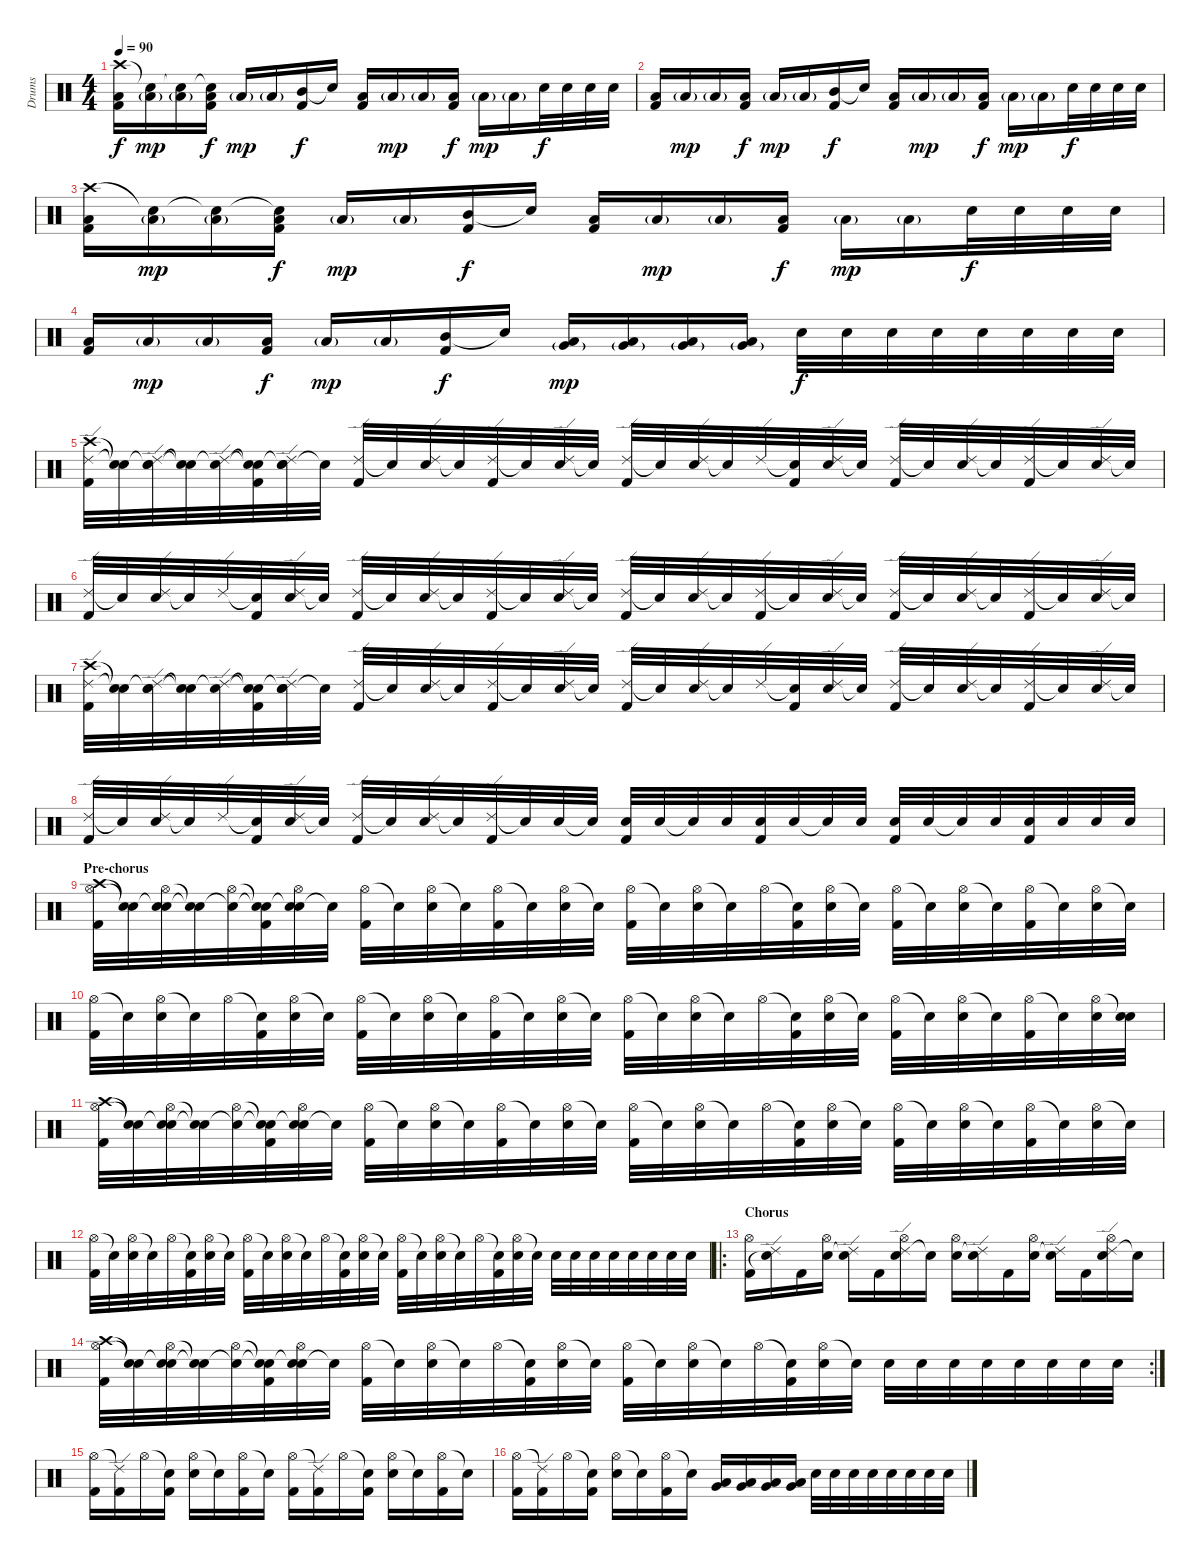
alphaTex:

\track ("Drums" "Drums") {instrument percussion}
\staff {score}
\articulation defaults
\ts (4 4)
\tempo 90
\clef neutral
\ks c
("Crash high (hit)" "Low Tom (hit)" "Kick (hit) 2").16{dy f} ("Snare (hit)"{t} "Low Tom (hit)"{g}).16{dy mp} ("Snare (hit)"{t} "Low Tom (hit)"{g}).16 ("Snare (hit)"{t} "Low Tom (hit)" "Kick (hit) 2").16{dy f} "Low Tom (hit)"{g}.16{dy mp} "Low Tom (hit)"{g}.16 ("Mid Tom (hit)" "Kick (hit) 2").16{dy f} "Snare (hit)"{t}.16 ("Low Tom (hit)" "Kick (hit) 2").16 "Low Tom (hit)"{g}.16{dy mp} "Low Tom (hit)"{g}.16 ("Low Tom (hit)" "Kick (hit) 2").16{dy f} "Low Tom (hit)"{g}.16{dy mp} "Low Tom (hit)"{g}.16 "Electric Snare (hit)".32{dy f} "Electric Snare (hit)".32 "Electric Snare (hit)".32 "Electric Snare (hit)".32 |
("Low Tom (hit)" "Kick (hit) 2").16 "Low Tom (hit)"{g}.16{dy mp} "Low Tom (hit)"{g}.16 ("Low Tom (hit)" "Kick (hit) 2").16{dy f} "Low Tom (hit)"{g}.16{dy mp} "Low Tom (hit)"{g}.16 ("Mid Tom (hit)" "Kick (hit) 2").16{dy f} "Snare (hit)"{t}.16 ("Low Tom (hit)" "Kick (hit) 2").16 "Low Tom (hit)"{g}.16{dy mp} "Low Tom (hit)"{g}.16 ("Low Tom (hit)" "Kick (hit) 2").16{dy f} "Low Tom (hit)"{g}.16{dy mp} "Low Tom (hit)"{g}.16 "Electric Snare (hit)".32{dy f} "Electric Snare (hit)".32 "Electric Snare (hit)".32 "Electric Snare (hit)".32 |
("Crash high (hit)" "Low Tom (hit)" "Kick (hit) 2").16 ("Snare (hit)"{t} "Low Tom (hit)"{g}).16{dy mp} ("Snare (hit)"{t} "Low Tom (hit)"{g}).16 ("Snare (hit)"{t} "Low Tom (hit)" "Kick (hit) 2").16{dy f} "Low Tom (hit)"{g}.16{dy mp} "Low Tom (hit)"{g}.16 ("Mid Tom (hit)" "Kick (hit) 2").16{dy f} "Snare (hit)"{t}.16 ("Low Tom (hit)" "Kick (hit) 2").16 "Low Tom (hit)"{g}.16{dy mp} "Low Tom (hit)"{g}.16 ("Low Tom (hit)" "Kick (hit) 2").16{dy f} "Low Tom (hit)"{g}.16{dy mp} "Low Tom (hit)"{g}.16 "Electric Snare (hit)".32{dy f} "Electric Snare (hit)".32 "Electric Snare (hit)".32 "Electric Snare (hit)".32 |
("Low Tom (hit)" "Kick (hit) 2").16 "Low Tom (hit)"{g}.16{dy mp} "Low Tom (hit)"{g}.16 ("Low Tom (hit)" "Kick (hit) 2").16{dy f} "Low Tom (hit)"{g}.16{dy mp} "Low Tom (hit)"{g}.16 ("Mid Tom (hit)" "Kick (hit) 2").16{dy f} "Snare (hit)"{t}.16 ("Very Low Tom (hit)"{g} "Low Tom (hit)").16{dy mp} ("Very Low Tom (hit)"{g} "Low Tom (hit)").16 ("Very Low Tom (hit)"{g} "Low Tom (hit)").16 ("Very Low Tom (hit)"{g} "Low Tom (hit)").16 "Electric Snare (hit)".32{dy f} "Electric Snare (hit)".32 "Electric Snare (hit)".32 "Electric Snare (hit)".32 "Electric Snare (hit)".32 "Electric Snare (hit)".32 "Electric Snare (hit)".32 "Electric Snare (hit)".32 |
("Crash high (hit)" "Ride (edge) 2" "Kick (hit) 2").32 ("Snare (hit)"{t} "Snare (hit)"{t}).32 ("Snare (hit)"{t} "Ride (edge) 2" "Electric Snare (hit)").32 ("Snare (hit)"{t} "Snare (hit)"{t}).32 ("Snare (hit)"{t} "Ride (edge) 2").32 ("Snare (hit)"{t} "Snare (hit)"{t} "Kick (hit) 2").32 ("Snare (hit)"{t} "Ride (edge) 2" "Electric Snare (hit)").32 "Snare (hit)"{t}.32 ("Ride (edge) 2" "Kick (hit) 2").32 "Snare (hit)"{t}.32 ("Ride (edge) 2" "Electric Snare (hit)").32 "Snare (hit)"{t}.32 ("Ride (edge) 2" "Kick (hit) 2").32 "Snare (hit)"{t}.32 ("Ride (edge) 2" "Electric Snare (hit)").32 "Snare (hit)"{t}.32 ("Ride (edge) 2" "Kick (hit) 2").32 "Snare (hit)"{t}.32 ("Ride (edge) 2" "Electric Snare (hit)").32 "Snare (hit)"{t}.32 "Ride (edge) 2".32 ("Snare (hit)"{t} "Kick (hit) 2").32 ("Ride (edge) 2" "Electric Snare (hit)").32 "Snare (hit)"{t}.32 ("Ride (edge) 2" "Kick (hit) 2").32 "Snare (hit)"{t}.32 ("Ride (edge) 2" "Electric Snare (hit)").32 "Snare (hit)"{t}.32 ("Ride (edge) 2" "Kick (hit) 2").32 "Snare (hit)"{t}.32 ("Ride (edge) 2" "Electric Snare (hit)").32 "Snare (hit)"{t}.32 |
("Ride (edge) 2" "Kick (hit) 2").32 "Snare (hit)"{t}.32 ("Ride (edge) 2" "Electric Snare (hit)").32 "Snare (hit)"{t}.32 "Ride (edge) 2".32 ("Snare (hit)"{t} "Kick (hit) 2").32 ("Ride (edge) 2" "Electric Snare (hit)").32 "Snare (hit)"{t}.32 ("Ride (edge) 2" "Kick (hit) 2").32 "Snare (hit)"{t}.32 ("Ride (edge) 2" "Electric Snare (hit)").32 "Snare (hit)"{t}.32 ("Ride (edge) 2" "Kick (hit) 2").32 "Snare (hit)"{t}.32 ("Ride (edge) 2" "Electric Snare (hit)").32 "Snare (hit)"{t}.32 ("Ride (edge) 2" "Kick (hit) 2").32 "Snare (hit)"{t}.32 ("Ride (edge) 2" "Electric Snare (hit)").32 "Snare (hit)"{t}.32 ("Ride (edge) 2" "Kick (hit) 2").32 "Snare (hit)"{t}.32 ("Ride (edge) 2" "Electric Snare (hit)").32 "Snare (hit)"{t}.32 ("Ride (edge) 2" "Kick (hit) 2").32 "Snare (hit)"{t}.32 ("Ride (edge) 2" "Electric Snare (hit)").32 "Snare (hit)"{t}.32 ("Ride (edge) 2" "Kick (hit) 2").32 "Snare (hit)"{t}.32 ("Ride (edge) 2" "Electric Snare (hit)").32 "Snare (hit)"{t}.32 |
("Crash high (hit)" "Ride (edge) 2" "Kick (hit) 2").32 ("Snare (hit)"{t} "Snare (hit)"{t}).32 ("Snare (hit)"{t} "Ride (edge) 2" "Electric Snare (hit)").32 ("Snare (hit)"{t} "Snare (hit)"{t}).32 ("Snare (hit)"{t} "Ride (edge) 2").32 ("Snare (hit)"{t} "Snare (hit)"{t} "Kick (hit) 2").32 ("Snare (hit)"{t} "Ride (edge) 2" "Electric Snare (hit)").32 "Snare (hit)"{t}.32 ("Ride (edge) 2" "Kick (hit) 2").32 "Snare (hit)"{t}.32 ("Ride (edge) 2" "Electric Snare (hit)").32 "Snare (hit)"{t}.32 ("Ride (edge) 2" "Kick (hit) 2").32 "Snare (hit)"{t}.32 ("Ride (edge) 2" "Electric Snare (hit)").32 "Snare (hit)"{t}.32 ("Ride (edge) 2" "Kick (hit) 2").32 "Snare (hit)"{t}.32 ("Ride (edge) 2" "Electric Snare (hit)").32 "Snare (hit)"{t}.32 "Ride (edge) 2".32 ("Snare (hit)"{t} "Kick (hit) 2").32 ("Ride (edge) 2" "Electric Snare (hit)").32 "Snare (hit)"{t}.32 ("Ride (edge) 2" "Kick (hit) 2").32 "Snare (hit)"{t}.32 ("Ride (edge) 2" "Electric Snare (hit)").32 "Snare (hit)"{t}.32 ("Ride (edge) 2" "Kick (hit) 2").32 "Snare (hit)"{t}.32 ("Ride (edge) 2" "Electric Snare (hit)").32 "Snare (hit)"{t}.32 |
("Ride (edge) 2" "Kick (hit) 2").32 "Snare (hit)"{t}.32 ("Ride (edge) 2" "Electric Snare (hit)").32 "Snare (hit)"{t}.32 "Ride (edge) 2".32 ("Snare (hit)"{t} "Kick (hit) 2").32 ("Ride (edge) 2" "Electric Snare (hit)").32 "Snare (hit)"{t}.32 ("Ride (edge) 2" "Kick (hit) 2").32 "Snare (hit)"{t}.32 ("Ride (edge) 2" "Electric Snare (hit)").32 "Snare (hit)"{t}.32 ("Ride (edge) 2" "Kick (hit) 2").32 "Snare (hit)"{t}.32 "Electric Snare (hit)".32 "Electric Snare (hit)"{t}.32 ("Electric Snare (hit)" "Kick (hit) 2").32 "Electric Snare (hit)".32 "Electric Snare (hit)"{t}.32 "Electric Snare (hit)".32 ("Electric Snare (hit)" "Kick (hit) 2").32 "Electric Snare (hit)".32 "Electric Snare (hit)"{t}.32 "Electric Snare (hit)".32 ("Electric Snare (hit)" "Kick (hit) 2").32 "Electric Snare (hit)".32 "Electric Snare (hit)"{t}.32 "Electric Snare (hit)".32 ("Electric Snare (hit)" "Kick (hit) 2").32 "Electric Snare (hit)".32 "Electric Snare (hit)".32 "Electric Snare (hit)".32 |
\section ("" "Pre-chorus")
("Crash high (hit)" "Hi-Hat (open)" "Kick (hit) 2").32 ("Snare (hit)"{t} "Snare (hit)"{t}).32 ("Snare (hit)"{t} "Hi-Hat (open)" "Electric Snare (hit)").32 ("Snare (hit)"{t} "Snare (hit)"{t}).32 ("Snare (hit)"{t} "Hi-Hat (open)").32 ("Snare (hit)"{t} "Snare (hit)"{t} "Kick (hit) 2").32 ("Snare (hit)"{t} "Hi-Hat (open)" "Electric Snare (hit)").32 "Snare (hit)"{t}.32 ("Hi-Hat (open)" "Kick (hit) 2").32 "Snare (hit)"{t}.32 ("Hi-Hat (open)" "Electric Snare (hit)").32 "Snare (hit)"{t}.32 ("Hi-Hat (open)" "Kick (hit) 2").32 "Snare (hit)"{t}.32 ("Hi-Hat (open)" "Electric Snare (hit)").32 "Snare (hit)"{t}.32 ("Hi-Hat (open)" "Kick (hit) 2").32 "Snare (hit)"{t}.32 ("Hi-Hat (open)" "Electric Snare (hit)").32 "Snare (hit)"{t}.32 "Hi-Hat (open)".32 ("Snare (hit)"{t} "Kick (hit) 2").32 ("Hi-Hat (open)" "Electric Snare (hit)").32 "Snare (hit)"{t}.32 ("Hi-Hat (open)" "Kick (hit) 2").32 "Snare (hit)"{t}.32 ("Hi-Hat (open)" "Electric Snare (hit)").32 "Snare (hit)"{t}.32 ("Hi-Hat (open)" "Kick (hit) 2").32 "Snare (hit)"{t}.32 ("Hi-Hat (open)" "Electric Snare (hit)").32 "Snare (hit)"{t}.32 |
("Hi-Hat (open)" "Kick (hit) 2").32 "Snare (hit)"{t}.32 ("Hi-Hat (open)" "Electric Snare (hit)").32 "Snare (hit)"{t}.32 "Hi-Hat (open)".32 ("Snare (hit)"{t} "Kick (hit) 2").32 ("Hi-Hat (open)" "Electric Snare (hit)").32 "Snare (hit)"{t}.32 ("Hi-Hat (open)" "Kick (hit) 2").32 "Snare (hit)"{t}.32 ("Hi-Hat (open)" "Electric Snare (hit)").32 "Snare (hit)"{t}.32 ("Hi-Hat (open)" "Kick (hit) 2").32 "Snare (hit)"{t}.32 ("Hi-Hat (open)" "Electric Snare (hit)").32 "Snare (hit)"{t}.32 ("Hi-Hat (open)" "Kick (hit) 2").32 "Snare (hit)"{t}.32 ("Hi-Hat (open)" "Electric Snare (hit)").32 "Snare (hit)"{t}.32 "Hi-Hat (open)".32 ("Snare (hit)"{t} "Kick (hit) 2").32 ("Hi-Hat (open)" "Electric Snare (hit)").32 "Snare (hit)"{t}.32 ("Hi-Hat (open)" "Kick (hit) 2").32 "Snare (hit)"{t}.32 ("Hi-Hat (open)" "Electric Snare (hit)").32 "Snare (hit)"{t}.32 ("Hi-Hat (open)" "Kick (hit) 2").32 "Snare (hit)"{t}.32 ("Hi-Hat (open)" "Electric Snare (hit)").32 ("Snare (hit)"{t} "Electric Snare (hit)").32 |
("Crash high (hit)" "Hi-Hat (open)" "Kick (hit) 2").32 ("Snare (hit)"{t} "Snare (hit)"{t}).32 ("Snare (hit)"{t} "Hi-Hat (open)" "Electric Snare (hit)").32 ("Snare (hit)"{t} "Snare (hit)"{t}).32 ("Snare (hit)"{t} "Hi-Hat (open)").32 ("Snare (hit)"{t} "Snare (hit)"{t} "Kick (hit) 2").32 ("Snare (hit)"{t} "Hi-Hat (open)" "Electric Snare (hit)").32 "Snare (hit)"{t}.32 ("Hi-Hat (open)" "Kick (hit) 2").32 "Snare (hit)"{t}.32 ("Hi-Hat (open)" "Electric Snare (hit)").32 "Snare (hit)"{t}.32 ("Hi-Hat (open)" "Kick (hit) 2").32 "Snare (hit)"{t}.32 ("Hi-Hat (open)" "Electric Snare (hit)").32 "Snare (hit)"{t}.32 ("Hi-Hat (open)" "Kick (hit) 2").32 "Snare (hit)"{t}.32 ("Hi-Hat (open)" "Electric Snare (hit)").32 "Snare (hit)"{t}.32 "Hi-Hat (open)".32 ("Snare (hit)"{t} "Kick (hit) 2").32 ("Hi-Hat (open)" "Electric Snare (hit)").32 "Snare (hit)"{t}.32 ("Hi-Hat (open)" "Kick (hit) 2").32 "Snare (hit)"{t}.32 ("Hi-Hat (open)" "Electric Snare (hit)").32 "Snare (hit)"{t}.32 ("Hi-Hat (open)" "Kick (hit) 2").32 "Snare (hit)"{t}.32 ("Hi-Hat (open)" "Electric Snare (hit)").32 "Snare (hit)"{t}.32 |
("Hi-Hat (open)" "Kick (hit) 2").32 "Snare (hit)"{t}.32 ("Hi-Hat (open)" "Electric Snare (hit)").32 "Snare (hit)"{t}.32 "Hi-Hat (open)".32 ("Snare (hit)"{t} "Kick (hit) 2").32 ("Hi-Hat (open)" "Electric Snare (hit)").32 "Snare (hit)"{t}.32 ("Hi-Hat (open)" "Kick (hit) 2").32 "Snare (hit)"{t}.32 ("Hi-Hat (open)" "Electric Snare (hit)").32 "Snare (hit)"{t}.32 "Hi-Hat (open)".32 ("Snare (hit)"{t} "Kick (hit) 2").32 ("Hi-Hat (open)" "Electric Snare (hit)").32 "Snare (hit)"{t}.32 ("Hi-Hat (open)" "Kick (hit) 2").32 "Snare (hit)"{t}.32 ("Hi-Hat (open)" "Electric Snare (hit)").32 "Snare (hit)"{t}.32 "Hi-Hat (open)".32 ("Snare (hit)"{t} "Kick (hit) 2").32 ("Hi-Hat (open)" "Electric Snare (hit)").32 "Snare (hit)"{t}.32 "Electric Snare (hit)".32 "Electric Snare (hit)".32 "Electric Snare (hit)".32 "Electric Snare (hit)".32 "Electric Snare (hit)".32 "Electric Snare (hit)".32 "Electric Snare (hit)".32 "Electric Snare (hit)".32 |
\ro
\section ("" "Chorus")
("Hi-Hat (open)" "Kick (hit) 2").16 ("Ride (edge) 2" "Snare (hit)"{t}).16 "Kick (hit) 2".16 ("Hi-Hat (open)" "Electric Snare (hit)").16 ("Ride (edge) 2" "Snare (hit)"{t}).16 "Kick (hit) 2".16 ("Ride (edge) 2" "Hi-Hat (open)" "Electric Snare (hit)").16 "Snare (hit)"{t}.16 ("Hi-Hat (open)" "Electric Snare (hit)").16 ("Ride (edge) 2" "Snare (hit)"{t}).16 "Kick (hit) 2".16 ("Hi-Hat (open)" "Electric Snare (hit)").16 ("Ride (edge) 2" "Snare (hit)"{t}).16 "Kick (hit) 2".16 ("Ride (edge) 2" "Hi-Hat (open)" "Electric Snare (hit)").16 "Snare (hit)"{t}.16 |
\rc 2
("Crash high (hit)" "Hi-Hat (open)" "Kick (hit) 2").32 ("Snare (hit)"{t} "Snare (hit)"{t}).32 ("Snare (hit)"{t} "Hi-Hat (open)" "Electric Snare (hit)").32 ("Snare (hit)"{t} "Snare (hit)"{t}).32 ("Snare (hit)"{t} "Hi-Hat (open)").32 ("Snare (hit)"{t} "Snare (hit)"{t} "Kick (hit) 2").32 ("Snare (hit)"{t} "Hi-Hat (open)" "Electric Snare (hit)").32 "Snare (hit)"{t}.32 ("Hi-Hat (open)" "Kick (hit) 2").32 "Snare (hit)"{t}.32 ("Hi-Hat (open)" "Electric Snare (hit)").32 "Snare (hit)"{t}.32 "Hi-Hat (open)".32 ("Snare (hit)"{t} "Kick (hit) 2").32 ("Hi-Hat (open)" "Electric Snare (hit)").32 "Snare (hit)"{t}.32 ("Hi-Hat (open)" "Kick (hit) 2").32 "Snare (hit)"{t}.32 ("Hi-Hat (open)" "Electric Snare (hit)").32 "Snare (hit)"{t}.32 "Hi-Hat (open)".32 ("Snare (hit)"{t} "Kick (hit) 2").32 ("Hi-Hat (open)" "Electric Snare (hit)").32 "Snare (hit)"{t}.32 "Electric Snare (hit)".32 "Electric Snare (hit)".32 "Electric Snare (hit)".32 "Electric Snare (hit)".32 "Electric Snare (hit)".32 "Electric Snare (hit)".32 "Electric Snare (hit)".32 "Electric Snare (hit)".32 |
("Hi-Hat (open)" "Kick (hit) 2").16 ("Ride (edge) 2"{t} "Kick (hit) 2").16 "Hi-Hat (open)".16 ("Snare (hit)"{t} "Kick (hit) 2").16 ("Hi-Hat (open)" "Electric Snare (hit)").16 "Snare (hit)"{t}.16 ("Hi-Hat (open)" "Kick (hit) 2").16 "Snare (hit)"{t}.16 ("Hi-Hat (open)" "Kick (hit) 2").16 ("Ride (edge) 2"{t} "Kick (hit) 2").16 "Hi-Hat (open)".16 ("Snare (hit)"{t} "Kick (hit) 2").16 ("Hi-Hat (open)" "Electric Snare (hit)").16 "Snare (hit)"{t}.16 ("Hi-Hat (open)" "Kick (hit) 2").16 "Snare (hit)"{t}.16 |
("Hi-Hat (open)" "Kick (hit) 2").16 ("Ride (edge) 2"{t} "Kick (hit) 2").16 "Hi-Hat (open)".16 ("Snare (hit)"{t} "Kick (hit) 2").16 ("Hi-Hat (open)" "Electric Snare (hit)").16 "Snare (hit)"{t}.16 ("Hi-Hat (open)" "Kick (hit) 2").16 "Snare (hit)"{t}.16 ("Very Low Tom (hit)" "Low Floor Tom (hit)").16 ("Very Low Tom (hit)" "Low Floor Tom (hit)").16 ("Very Low Tom (hit)" "Low Floor Tom (hit)").16 ("Very Low Tom (hit)" "Low Floor Tom (hit)").16 "Electric Snare (hit)".32 "Electric Snare (hit)".32 "Electric Snare (hit)".32 "Electric Snare (hit)".32 "Electric Snare (hit)".32 "Electric Snare (hit)".32 "Electric Snare (hit)".32 "Electric Snare (hit)".32
